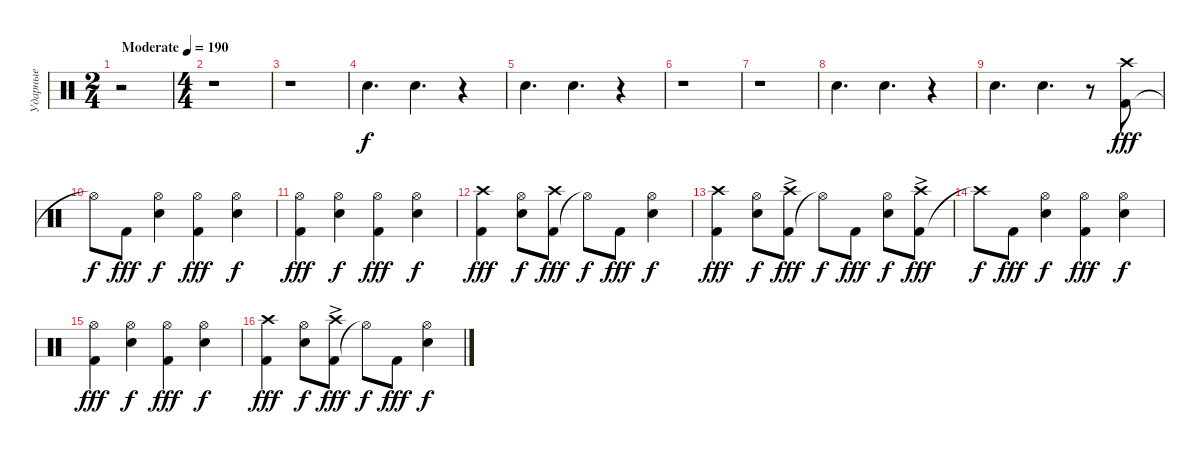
\track ("Ударные" "Ударные") {instrument percussion}
\staff {score}
\articulation defaults
\ts (2 4)
\tempo (190 "Moderate")
\clef neutral
\ks c
r.2{dy f} |
\ts (4 4)
r.1 |
r.1 |
"Snare (hit) 2".4{d} "Snare (hit) 2".4{d} r.4 |
"Snare (hit) 2".4{d} "Snare (hit) 2".4{d} r.4 |
r.1 |
r.1 |
"Snare (hit) 2".4{d} "Snare (hit) 2".4{d} r.4 |
"Snare (hit) 2".4{d} "Snare (hit) 2".4{d} r.8 ("Kick (hit) 2" "Crash high (hit)").8{dy fff} |
"Hi-Hat (open)"{t}.8{dy f} "Kick (hit) 2".8{dy fff} ("Snare (hit) 2" "Hi-Hat (open)").4{dy f} ("Kick (hit) 2" "Hi-Hat (open)").4{dy fff} ("Snare (hit) 2" "Hi-Hat (open)").4{dy f} |
("Kick (hit) 2" "Hi-Hat (open)").4{dy fff} ("Snare (hit) 2" "Hi-Hat (open)").4{dy f} ("Kick (hit) 2" "Hi-Hat (open)").4{dy fff} ("Snare (hit) 2" "Hi-Hat (open)").4{dy f} |
("Kick (hit) 2" "Crash high (hit)").4{dy fff} ("Snare (hit) 2" "Hi-Hat (open)").8{dy f} ("Kick (hit) 2" "Crash high (hit)").8{dy fff} "Hi-Hat (open)"{t}.8{dy f} "Kick (hit) 2".8{dy fff} ("Snare (hit) 2" "Hi-Hat (open)").4{dy f} |
("Kick (hit) 2" "Crash high (hit)").4{dy fff} ("Snare (hit) 2" "Hi-Hat (open)").8{dy f} ("Kick (hit) 2" "Crash high (hit)"{ac}).8{dy fff} "Hi-Hat (open)"{t}.8{dy f} "Kick (hit) 2".8{dy fff} ("Snare (hit) 2" "Hi-Hat (open)").8{dy f} ("Kick (hit) 2" "Crash high (hit)"{ac}).8{dy fff} |
"Crash high (hit)"{t}.8{dy f} "Kick (hit) 2".8{dy fff} ("Snare (hit) 2" "Hi-Hat (open)").4{dy f} ("Kick (hit) 2" "Hi-Hat (open)").4{dy fff} ("Snare (hit) 2" "Hi-Hat (open)").4{dy f} |
("Kick (hit) 2" "Hi-Hat (open)").4{dy fff} ("Snare (hit) 2" "Hi-Hat (open)").4{dy f} ("Kick (hit) 2" "Hi-Hat (open)").4{dy fff} ("Snare (hit) 2" "Hi-Hat (open)").4{dy f} |
("Kick (hit) 2" "Crash high (hit)").4{dy fff} ("Snare (hit) 2" "Hi-Hat (open)").8{dy f} ("Kick (hit) 2" "Crash high (hit)"{ac}).8{dy fff} "Hi-Hat (open)"{t}.8{dy f} "Kick (hit) 2".8{dy fff} ("Snare (hit) 2" "Hi-Hat (open)").4{dy f}
